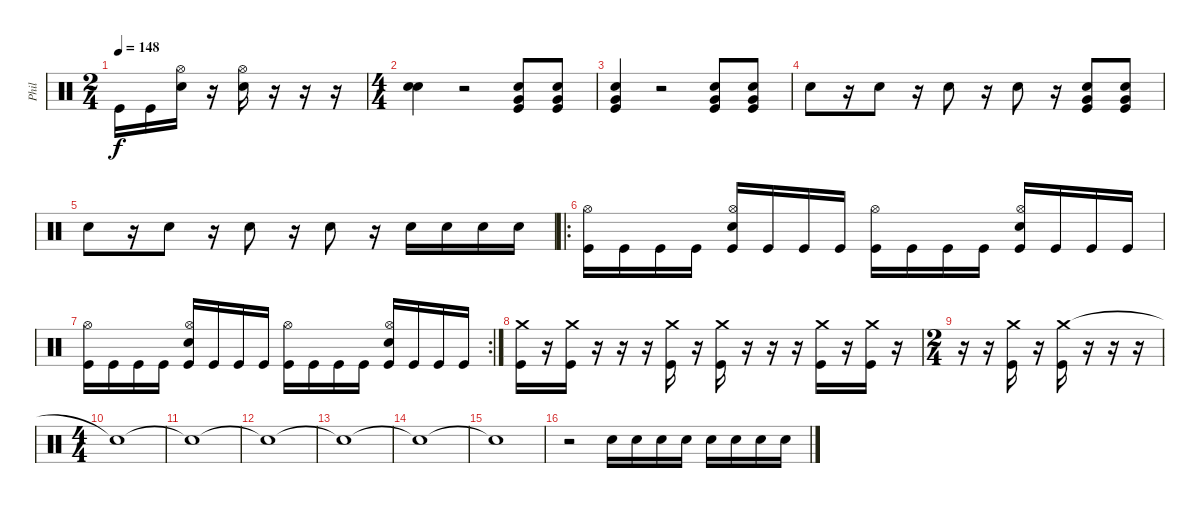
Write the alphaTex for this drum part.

\track ("Phil" "Phil") {instrument percussion}
\staff {score}
\articulation defaults
\ts (2 4)
\tempo 148
\clef neutral
\ks c "Kick (hit)".16{dy f} "Kick (hit)".16
("Hi-Hat (open)" "Electric Snare (hit)").16 r.16 ("Hi-Hat (open)" "Electric Snare (hit)").16 r.16 r.16 r.16 |
\ts (4 4)
("Electric Snare (hit)" "Electric Snare (hit)").4 r.2 ("Very Low Tom (hit)" "Electric Snare (hit)" "Kick (hit)").8 ("Very Low Tom (hit)" "Electric Snare (hit)" "Kick (hit)").8 |
("Very Low Tom (hit)" "Electric Snare (hit)" "Kick (hit)").4 r.2 ("Very Low Tom (hit)" "Electric Snare (hit)" "Kick (hit)").8 ("Very Low Tom (hit)" "Electric Snare (hit)" "Kick (hit)").8 |
"Electric Snare (hit)".8 r.16 "Electric Snare (hit)".8 r.16 "Electric Snare (hit)".8 r.16 "Electric Snare (hit)".8 r.16 ("Very Low Tom (hit)" "Electric Snare (hit)" "Kick (hit)").8 ("Very Low Tom (hit)" "Electric Snare (hit)" "Kick (hit)").8 |
"Electric Snare (hit)".8 r.16 "Electric Snare (hit)".8 r.16 "Electric Snare (hit)".8 r.16 "Electric Snare (hit)".8 r.16 "Electric Snare (hit)".16 "Electric Snare (hit)".16 "Electric Snare (hit)".16 "Electric Snare (hit)".16 |
\ro
("Hi-Hat (open)" "Kick (hit)").16 "Kick (hit)".16 "Kick (hit)".16 "Kick (hit)".16 ("Hi-Hat (open)" "Electric Snare (hit)" "Kick (hit)").16 "Kick (hit)".16 "Kick (hit)".16 "Kick (hit)".16 ("Hi-Hat (open)" "Kick (hit)").16 "Kick (hit)".16 "Kick (hit)".16 "Kick (hit)".16 ("Hi-Hat (open)" "Electric Snare (hit)" "Kick (hit)").16 "Kick (hit)".16 "Kick (hit)".16 "Kick (hit)".16 |
\rc 2
("Hi-Hat (open)" "Kick (hit)").16 "Kick (hit)".16 "Kick (hit)".16 "Kick (hit)".16 ("Hi-Hat (open)" "Electric Snare (hit)" "Kick (hit)").16 "Kick (hit)".16 "Kick (hit)".16 "Kick (hit)".16 ("Hi-Hat (open)" "Kick (hit)").16 "Kick (hit)".16 "Kick (hit)".16 "Kick (hit)".16 ("Hi-Hat (open)" "Electric Snare (hit)" "Kick (hit)").16 "Kick (hit)".16 "Kick (hit)".16 "Kick (hit)".16 |
("Crash medium (hit)" "Kick (hit)").16 r.16 ("Crash medium (hit)" "Kick (hit)").16 r.16 r.16 r.16 ("Crash medium (hit)" "Kick (hit)").16 r.16 ("Crash medium (hit)" "Kick (hit)").16 r.16 r.16 r.16 ("Crash medium (hit)" "Kick (hit)").16 r.16 ("Crash medium (hit)" "Kick (hit)").16 r.16 |
\ts (2 4)
r.16 r.16 ("Crash medium (hit)" "Kick (hit)").16 r.16 ("Crash medium (hit)" "Kick (hit)").16 r.16 r.16 r.16 |
\ts (4 4)
"Snare (hit)"{t}.1 |
"Snare (hit)"{t}.1 |
"Snare (hit)"{t}.1 |
"Snare (hit)"{t}.1 |
"Snare (hit)"{t}.1 |
"Snare (hit)"{t}.1 |
r.2 "Electric Snare (hit)".16 "Electric Snare (hit)".16 "Electric Snare (hit)".16 "Electric Snare (hit)".16 "Electric Snare (hit)".16 "Electric Snare (hit)".16 "Electric Snare (hit)".16 "Electric Snare (hit)".16
